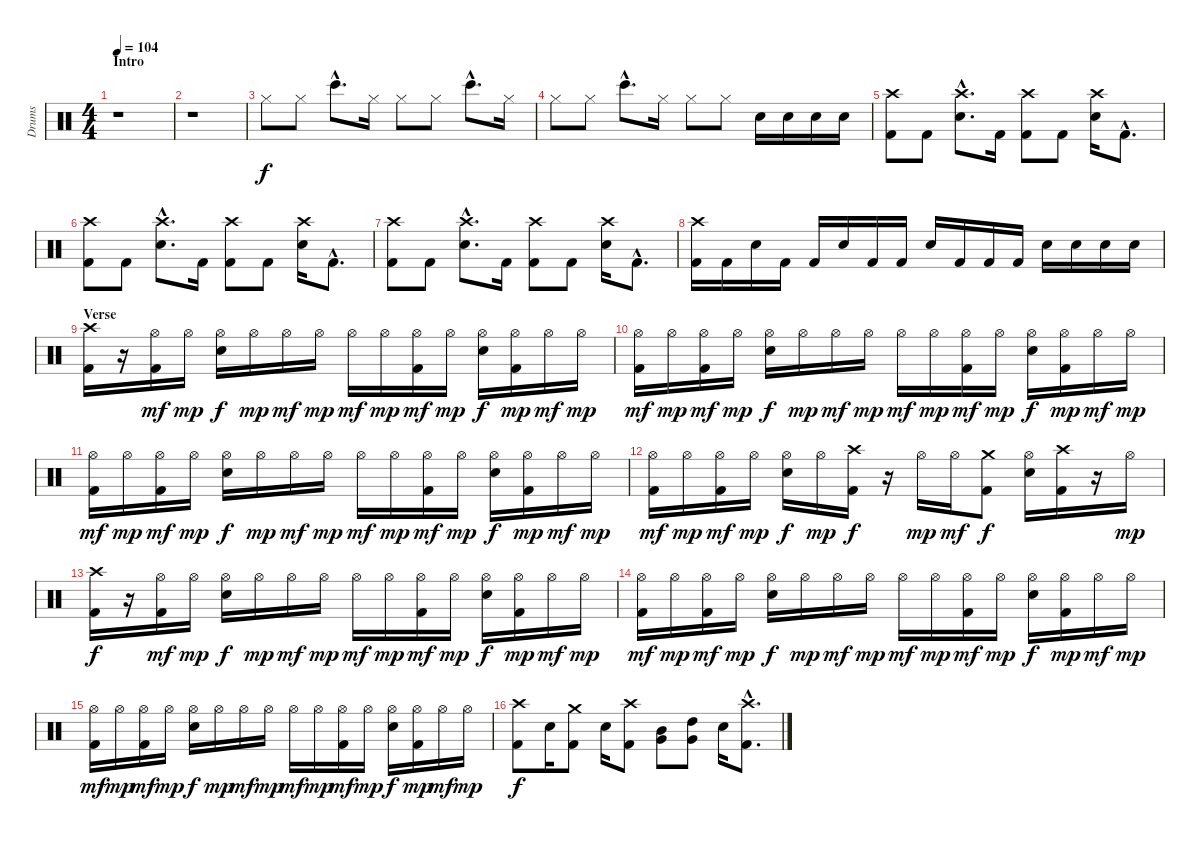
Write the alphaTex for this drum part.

\track ("Drums" "Drums") {instrument percussion}
\staff {score}
\articulation defaults
\ts (4 4)
\section ("" "Intro")
\tempo 104
\clef neutral
\ks c
r.1{dy f} |
r.1 |
"Hi-Hat (closed)".8{volume 5} "Hi-Hat (closed)".8 "Bongo High (hit)"{hac}.8{d volume 10} "Hi-Hat (closed)".16 "Hi-Hat (closed)".8 "Hi-Hat (closed)".8 "Bongo High (hit)"{hac}.8{d} "Hi-Hat (closed)".16 |
"Hi-Hat (closed)".8 "Hi-Hat (closed)".8 "Bongo High (hit)"{hac}.8{d} "Hi-Hat (closed)".16 "Hi-Hat (closed)".8 "Hi-Hat (closed)".8 "Snare (hit) 2".16{volume 13} "Snare (hit) 2".16 "Electric Snare (hit)".16 "Electric Snare (hit)".16 |
("Crash high (hit)" "Kick (hit) 2").8 "Kick (hit) 2".8 ("Crash high (hit)"{hac} "Electric Snare (hit)"{hac}).8{d} "Kick (hit) 2".16 ("Crash high (hit)" "Kick (hit) 2").8 "Kick (hit) 2".8 ("Crash high (hit)" "Electric Snare (hit)").16 "Kick (hit) 2"{hac}.8{d} |
("Crash high (hit)" "Kick (hit) 2").8 "Kick (hit) 2".8 ("Crash high (hit)"{hac} "Electric Snare (hit)"{hac}).8{d} "Kick (hit) 2".16 ("Crash high (hit)" "Kick (hit) 2").8 "Kick (hit) 2".8 ("Crash high (hit)" "Electric Snare (hit)").16 "Kick (hit) 2"{hac}.8{d} |
("Crash high (hit)" "Kick (hit) 2").8 "Kick (hit) 2".8 ("Crash high (hit)"{hac} "Electric Snare (hit)"{hac}).8{d} "Kick (hit) 2".16 ("Crash high (hit)" "Kick (hit) 2").8 "Kick (hit) 2".8 ("Crash high (hit)" "Electric Snare (hit)").16 "Kick (hit) 2"{hac}.8{d} |
("Crash high (hit)" "Kick (hit) 2").16 "Kick (hit) 2".16 "Electric Snare (hit)".16 "Kick (hit) 2".16 "Kick (hit) 2".16 "Electric Snare (hit)".16 "Kick (hit) 2".16 "Kick (hit) 2".16 "Electric Snare (hit)".16 "Kick (hit) 2".16 "Kick (hit) 2".16 "Kick (hit) 2".16 "Electric Snare (hit)".16 "Electric Snare (hit)".16 "Electric Snare (hit)".16 "Electric Snare (hit)".16 |
\section ("" "Verse")
("Crash high (hit)" "Kick (hit) 2").16 r.16 ("Hi-Hat (open)" "Kick (hit) 2").16{dy mf} "Hi-Hat (open)".16{dy mp} ("Hi-Hat (open)" "Electric Snare (hit)").16{dy f} "Hi-Hat (open)".16{dy mp} "Hi-Hat (open)".16{dy mf} "Hi-Hat (open)".16{dy mp} "Hi-Hat (open)".16{dy mf} "Hi-Hat (open)".16{dy mp} ("Hi-Hat (open)" "Kick (hit) 2").16{dy mf} "Hi-Hat (open)".16{dy mp} ("Hi-Hat (open)" "Electric Snare (hit)").16{dy f} ("Hi-Hat (open)" "Kick (hit) 2").16{dy mp} "Hi-Hat (open)".16{dy mf} "Hi-Hat (open)".16{dy mp} |
("Hi-Hat (open)" "Kick (hit) 2").16{dy mf} "Hi-Hat (open)".16{dy mp} ("Hi-Hat (open)" "Kick (hit) 2").16{dy mf} "Hi-Hat (open)".16{dy mp} ("Hi-Hat (open)" "Electric Snare (hit)").16{dy f} "Hi-Hat (open)".16{dy mp} "Hi-Hat (open)".16{dy mf} "Hi-Hat (open)".16{dy mp} "Hi-Hat (open)".16{dy mf} "Hi-Hat (open)".16{dy mp} ("Hi-Hat (open)" "Kick (hit) 2").16{dy mf} "Hi-Hat (open)".16{dy mp} ("Hi-Hat (open)" "Electric Snare (hit)").16{dy f} ("Hi-Hat (open)" "Kick (hit) 2").16{dy mp} "Hi-Hat (open)".16{dy mf} "Hi-Hat (open)".16{dy mp} |
("Hi-Hat (open)" "Kick (hit) 2").16{dy mf} "Hi-Hat (open)".16{dy mp} ("Hi-Hat (open)" "Kick (hit) 2").16{dy mf} "Hi-Hat (open)".16{dy mp} ("Hi-Hat (open)" "Electric Snare (hit)").16{dy f} "Hi-Hat (open)".16{dy mp} "Hi-Hat (open)".16{dy mf} "Hi-Hat (open)".16{dy mp} "Hi-Hat (open)".16{dy mf} "Hi-Hat (open)".16{dy mp} ("Hi-Hat (open)" "Kick (hit) 2").16{dy mf} "Hi-Hat (open)".16{dy mp} ("Hi-Hat (open)" "Electric Snare (hit)").16{dy f} ("Hi-Hat (open)" "Kick (hit) 2").16{dy mp} "Hi-Hat (open)".16{dy mf} "Hi-Hat (open)".16{dy mp} |
("Hi-Hat (open)" "Kick (hit) 2").16{dy mf} "Hi-Hat (open)".16{dy mp} ("Hi-Hat (open)" "Kick (hit) 2").16{dy mf} "Hi-Hat (open)".16{dy mp} ("Hi-Hat (open)" "Electric Snare (hit)").16{dy f} "Hi-Hat (open)".16{dy mp} ("Crash high (hit)" "Kick (hit) 2").16{dy f} r.16 "Hi-Hat (open)".16{dy mp} "Hi-Hat (open)".16{dy mf} ("Crash medium (hit)" "Kick (hit) 2").8{dy f} ("Hi-Hat (open)" "Electric Snare (hit)").16 ("Crash high (hit)" "Kick (hit) 2").16 r.16 "Hi-Hat (open)".16{dy mp} |
("Crash high (hit)" "Kick (hit) 2").16{dy f} r.16 ("Hi-Hat (open)" "Kick (hit) 2").16{dy mf} "Hi-Hat (open)".16{dy mp} ("Hi-Hat (open)" "Electric Snare (hit)").16{dy f} "Hi-Hat (open)".16{dy mp} "Hi-Hat (open)".16{dy mf} "Hi-Hat (open)".16{dy mp} "Hi-Hat (open)".16{dy mf} "Hi-Hat (open)".16{dy mp} ("Hi-Hat (open)" "Kick (hit) 2").16{dy mf} "Hi-Hat (open)".16{dy mp} ("Hi-Hat (open)" "Electric Snare (hit)").16{dy f} ("Hi-Hat (open)" "Kick (hit) 2").16{dy mp} "Hi-Hat (open)".16{dy mf} "Hi-Hat (open)".16{dy mp} |
("Hi-Hat (open)" "Kick (hit) 2").16{dy mf} "Hi-Hat (open)".16{dy mp} ("Hi-Hat (open)" "Kick (hit) 2").16{dy mf} "Hi-Hat (open)".16{dy mp} ("Hi-Hat (open)" "Electric Snare (hit)").16{dy f} "Hi-Hat (open)".16{dy mp} "Hi-Hat (open)".16{dy mf} "Hi-Hat (open)".16{dy mp} "Hi-Hat (open)".16{dy mf} "Hi-Hat (open)".16{dy mp} ("Hi-Hat (open)" "Kick (hit) 2").16{dy mf} "Hi-Hat (open)".16{dy mp} ("Hi-Hat (open)" "Electric Snare (hit)").16{dy f} ("Hi-Hat (open)" "Kick (hit) 2").16{dy mp} "Hi-Hat (open)".16{dy mf} "Hi-Hat (open)".16{dy mp} |
("Hi-Hat (open)" "Kick (hit) 2").16{dy mf} "Hi-Hat (open)".16{dy mp} ("Hi-Hat (open)" "Kick (hit) 2").16{dy mf} "Hi-Hat (open)".16{dy mp} ("Hi-Hat (open)" "Electric Snare (hit)").16{dy f} "Hi-Hat (open)".16{dy mp} "Hi-Hat (open)".16{dy mf} "Hi-Hat (open)".16{dy mp} "Hi-Hat (open)".16{dy mf} "Hi-Hat (open)".16{dy mp} ("Hi-Hat (open)" "Kick (hit) 2").16{dy mf} "Hi-Hat (open)".16{dy mp} ("Hi-Hat (open)" "Electric Snare (hit)").16{dy f} ("Hi-Hat (open)" "Kick (hit) 2").16{dy mp} "Hi-Hat (open)".16{dy mf} "Hi-Hat (open)".16{dy mp} |
("Crash high (hit)" "Kick (hit) 2").8{dy f} "Electric Snare (hit)".16 ("Crash medium (hit)" "Kick (hit) 2").8 "Electric Snare (hit)".16 ("Crash high (hit)" "Kick (hit) 2").8 ("Mid Tom (hit)" "Very Low Tom (hit)").8 ("High Tom (hit)" "Very Low Tom (hit)").8 "Electric Snare (hit)".16 ("Crash high (hit)"{hac} "Kick (hit) 2"{hac}).8{d}
